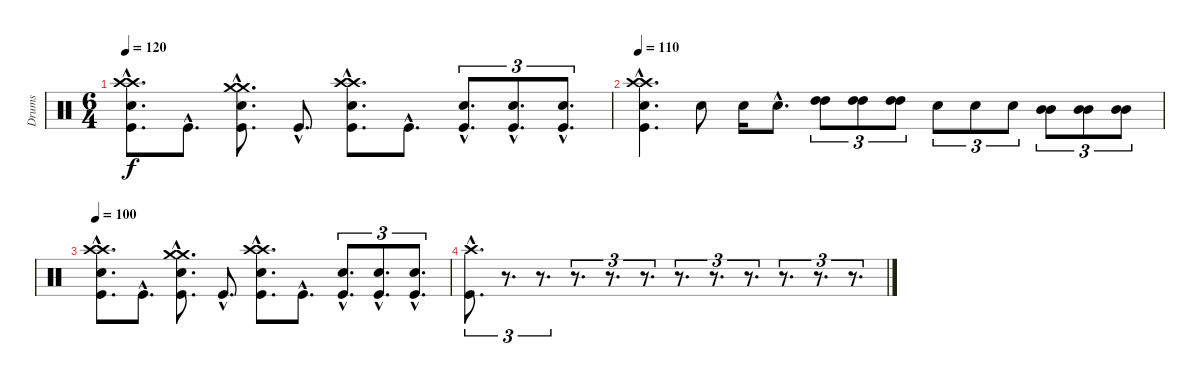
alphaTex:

\track ("Drums" "Drums") {instrument percussion}
\staff {score}
\articulation defaults
\ts (6 4)
\tempo 120
\clef neutral
\ks c
("Crash high (hit)"{hac} "Crash high (hit)"{hac} "Electric Snare (hit)"{hac} "Kick (hit)"{hac}).8{d dy f} "Kick (hit)"{hac}.8{d} ("Crash medium (hit)"{hac} "Crash medium (hit)"{hac} "Electric Snare (hit)"{hac} "Kick (hit)"{hac}).8{d} "Kick (hit)"{hac}.8{d} ("Crash high (hit)"{hac} "Crash high (hit)"{hac} "Electric Snare (hit)"{hac} "Kick (hit)"{hac}).8{d} "Kick (hit)"{hac}.8{d} ("Electric Snare (hit)"{hac} "Kick (hit)"{hac}).8{d tu (3 2)} ("Electric Snare (hit)"{hac} "Kick (hit)"{hac}).8{d tu (3 2)} ("Electric Snare (hit)"{hac} "Kick (hit)"{hac}).8{d tu (3 2)} |
\tempo 110
("Crash high (hit)"{hac} "Crash high (hit)"{hac} "Electric Snare (hit)"{hac} "Kick (hit)"{hac}).4{d} "Electric Snare (hit)".8 "Electric Snare (hit)".16 "Electric Snare (hit)"{hac}.8{d} ("High Tom (hit)" "High Tom (hit)").8{tu (3 2)} ("High Tom (hit)" "High Tom (hit)").8{tu (3 2)} ("High Tom (hit)" "High Tom (hit)").8{tu (3 2)} "Electric Snare (hit)".8{tu (3 2)} "Electric Snare (hit)".8{tu (3 2)} "Electric Snare (hit)".8{tu (3 2)} ("Mid Tom (hit)" "Mid Tom (hit)").8{tu (3 2)} ("Mid Tom (hit)" "Mid Tom (hit)").8{tu (3 2)} ("Mid Tom (hit)" "Mid Tom (hit)").8{tu (3 2)} |
\tempo 100
("Crash high (hit)"{hac} "Crash high (hit)"{hac} "Electric Snare (hit)"{hac} "Kick (hit)"{hac}).8{d} "Kick (hit)"{hac}.8{d} ("Crash medium (hit)"{hac} "Crash medium (hit)"{hac} "Electric Snare (hit)"{hac} "Kick (hit)"{hac}).8{d} "Kick (hit)"{hac}.8{d} ("Crash high (hit)"{hac} "Crash high (hit)"{hac} "Electric Snare (hit)"{hac} "Kick (hit)"{hac}).8{d} "Kick (hit)"{hac}.8{d} ("Electric Snare (hit)"{hac} "Kick (hit)"{hac}).8{d tu (3 2)} ("Electric Snare (hit)"{hac} "Kick (hit)"{hac}).8{d tu (3 2)} ("Electric Snare (hit)"{hac} "Kick (hit)"{hac}).8{d tu (3 2)} |
("Crash high (hit)"{hac} "Kick (hit)"{hac}).8{d tu (3 2)} r.8{d tu (3 2)} r.8{d tu (3 2)} r.8{d tu (3 2)} r.8{d tu (3 2)} r.8{d tu (3 2)} r.8{d tu (3 2)} r.8{d tu (3 2)} r.8{d tu (3 2)} r.8{d tu (3 2)} r.8{d tu (3 2)} r.8{d tu (3 2)}
